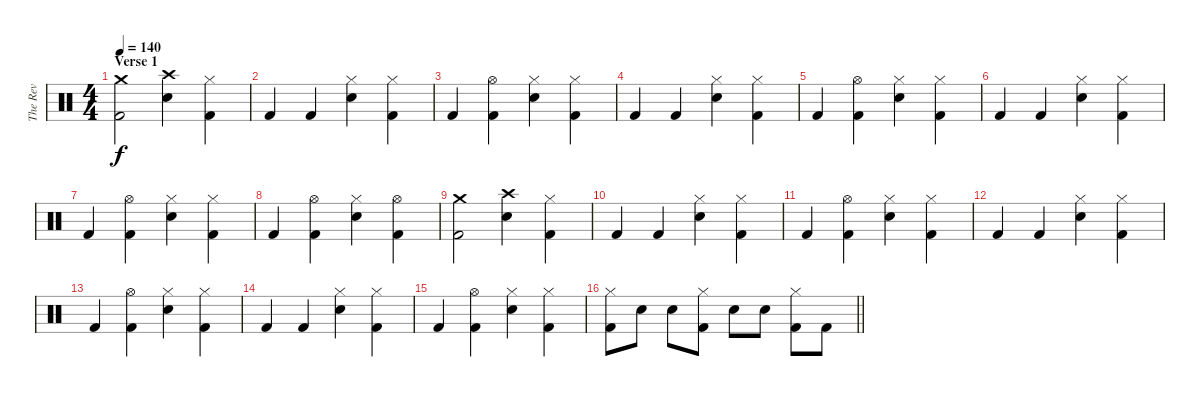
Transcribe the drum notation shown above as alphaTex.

\track ("The Rev" "The Rev") {instrument percussion}
\staff {score}
\articulation defaults
\ts (4 4)
\section ("" "Verse 1")
\tempo 140
\clef neutral
\ks c
("Crash medium (hit)" "Kick (hit) 2").2{dy f} ("Crash high (hit)" "Snare (hit) 2").4 ("Hi-Hat (closed)" "Kick (hit) 2").4 |
"Kick (hit) 2".4 "Kick (hit) 2".4 ("Hi-Hat (closed)" "Snare (hit) 2").4 ("Hi-Hat (closed)" "Kick (hit) 2").4 |
"Kick (hit) 2".4 ("Hi-Hat (open)" "Kick (hit) 2").4 ("Hi-Hat (closed)" "Snare (hit) 2").4 ("Hi-Hat (closed)" "Kick (hit) 2").4 |
"Kick (hit) 2".4 "Kick (hit) 2".4 ("Hi-Hat (closed)" "Snare (hit) 2").4 ("Hi-Hat (closed)" "Kick (hit) 2").4 |
"Kick (hit) 2".4 ("Hi-Hat (open)" "Kick (hit) 2").4 ("Hi-Hat (closed)" "Snare (hit) 2").4 ("Hi-Hat (closed)" "Kick (hit) 2").4 |
"Kick (hit) 2".4 "Kick (hit) 2".4 ("Hi-Hat (closed)" "Snare (hit) 2").4 ("Hi-Hat (closed)" "Kick (hit) 2").4 |
"Kick (hit) 2".4 ("Hi-Hat (open)" "Kick (hit) 2").4 ("Hi-Hat (closed)" "Snare (hit) 2").4 ("Hi-Hat (closed)" "Kick (hit) 2").4 |
"Kick (hit) 2".4 ("Hi-Hat (open)" "Kick (hit) 2").4 ("Hi-Hat (closed)" "Snare (hit) 2").4 ("Hi-Hat (open)" "Kick (hit) 2").4 |
("Crash medium (hit)" "Kick (hit) 2").2 ("Crash high (hit)" "Snare (hit) 2").4 ("Hi-Hat (closed)" "Kick (hit) 2").4 |
"Kick (hit) 2".4 "Kick (hit) 2".4 ("Hi-Hat (closed)" "Snare (hit) 2").4 ("Hi-Hat (closed)" "Kick (hit) 2").4 |
"Kick (hit) 2".4 ("Hi-Hat (open)" "Kick (hit) 2").4 ("Hi-Hat (closed)" "Snare (hit) 2").4 ("Hi-Hat (closed)" "Kick (hit) 2").4 |
"Kick (hit) 2".4 "Kick (hit) 2".4 ("Hi-Hat (closed)" "Snare (hit) 2").4 ("Hi-Hat (closed)" "Kick (hit) 2").4 |
"Kick (hit) 2".4 ("Hi-Hat (open)" "Kick (hit) 2").4 ("Hi-Hat (closed)" "Snare (hit) 2").4 ("Hi-Hat (closed)" "Kick (hit) 2").4 |
"Kick (hit) 2".4 "Kick (hit) 2".4 ("Hi-Hat (closed)" "Snare (hit) 2").4 ("Hi-Hat (closed)" "Kick (hit) 2").4 |
"Kick (hit) 2".4 ("Hi-Hat (open)" "Kick (hit) 2").4 ("Hi-Hat (closed)" "Snare (hit) 2").4 ("Hi-Hat (closed)" "Kick (hit) 2").4 |
\barLineRight lightlight
("Hi-Hat (closed)" "Kick (hit) 2").8 "Snare (hit) 2".8 "Snare (hit) 2".8 ("Hi-Hat (closed)" "Kick (hit) 2").8 "Snare (hit) 2".8 "Snare (hit) 2".8 ("Hi-Hat (closed)" "Kick (hit) 2").8 "Kick (hit) 2".8
